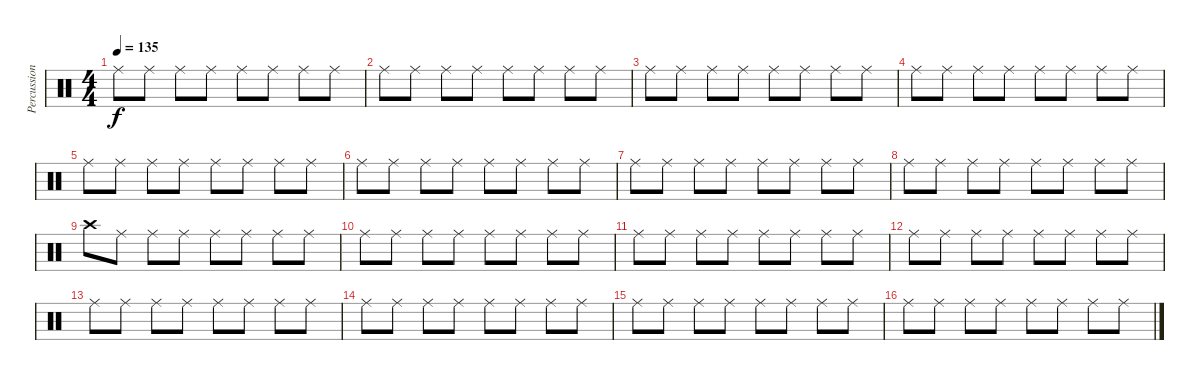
\track ("Percussion" "Percussion") {instrument percussion}
\staff {score}
\articulation defaults
\ts (4 4)
\tempo 135
\clef neutral
\ks c "Ride (middle)".8{dy f} "Ride (middle)".8 "Ride (middle)".8 "Ride (middle)".8 "Ride (middle)".8 "Ride (middle)".8 "Ride (middle)".8 "Ride (middle)".8
|
"Ride (middle)".8 "Ride (middle)".8 "Ride (middle)".8 "Ride (middle)".8 "Ride (middle)".8 "Ride (middle)".8 "Ride (middle)".8 "Ride (middle)".8 |
"Ride (middle)".8 "Ride (middle)".8 "Ride (middle)".8 "Ride (middle)".8 "Ride (middle)".8 "Ride (middle)".8 "Ride (middle)".8 "Ride (middle)".8 |
"Ride (middle)".8 "Ride (middle)".8 "Ride (middle)".8 "Ride (middle)".8 "Ride (middle)".8 "Ride (middle)".8 "Ride (middle)".8 "Ride (middle)".8 |
"Ride (middle)".8 "Ride (middle)".8 "Ride (middle)".8 "Ride (middle)".8 "Ride (middle)".8 "Ride (middle)".8 "Ride (middle)".8 "Ride (middle)".8 |
"Ride (middle)".8 "Ride (middle)".8 "Ride (middle)".8 "Ride (middle)".8 "Ride (middle)".8 "Ride (middle)".8 "Ride (middle)".8 "Ride (middle)".8 |
"Ride (middle)".8 "Ride (middle)".8 "Ride (middle)".8 "Ride (middle)".8 "Ride (middle)".8 "Ride (middle)".8 "Ride (middle)".8 "Ride (middle)".8 |
"Ride (middle)".8 "Ride (middle)".8 "Ride (middle)".8 "Ride (middle)".8 "Ride (middle)".8 "Ride (middle)".8 "Ride (middle)".8 "Ride (middle)".8 |
"Crash high (hit)".8 "Ride (middle)".8 "Ride (middle)".8 "Ride (middle)".8 "Ride (middle)".8 "Ride (middle)".8 "Ride (middle)".8 "Ride (middle)".8 |
"Ride (middle)".8 "Ride (middle)".8 "Ride (middle)".8 "Ride (middle)".8 "Ride (middle)".8 "Ride (middle)".8 "Ride (middle)".8 "Ride (middle)".8 |
"Ride (middle)".8 "Ride (middle)".8 "Ride (middle)".8 "Ride (middle)".8 "Ride (middle)".8 "Ride (middle)".8 "Ride (middle)".8 "Ride (middle)".8 |
"Ride (middle)".8 "Ride (middle)".8 "Ride (middle)".8 "Ride (middle)".8 "Ride (middle)".8 "Ride (middle)".8 "Ride (middle)".8 "Ride (middle)".8 |
"Ride (middle)".8 "Ride (middle)".8 "Ride (middle)".8 "Ride (middle)".8 "Ride (middle)".8 "Ride (middle)".8 "Ride (middle)".8 "Ride (middle)".8 |
"Ride (middle)".8 "Ride (middle)".8 "Ride (middle)".8 "Ride (middle)".8 "Ride (middle)".8 "Ride (middle)".8 "Ride (middle)".8 "Ride (middle)".8 |
"Ride (middle)".8 "Ride (middle)".8 "Ride (middle)".8 "Ride (middle)".8 "Ride (middle)".8 "Ride (middle)".8 "Ride (middle)".8 "Ride (middle)".8 |
"Ride (middle)".8 "Ride (middle)".8 "Ride (middle)".8 "Ride (middle)".8 "Ride (middle)".8 "Ride (middle)".8 "Ride (middle)".8 "Ride (middle)".8
